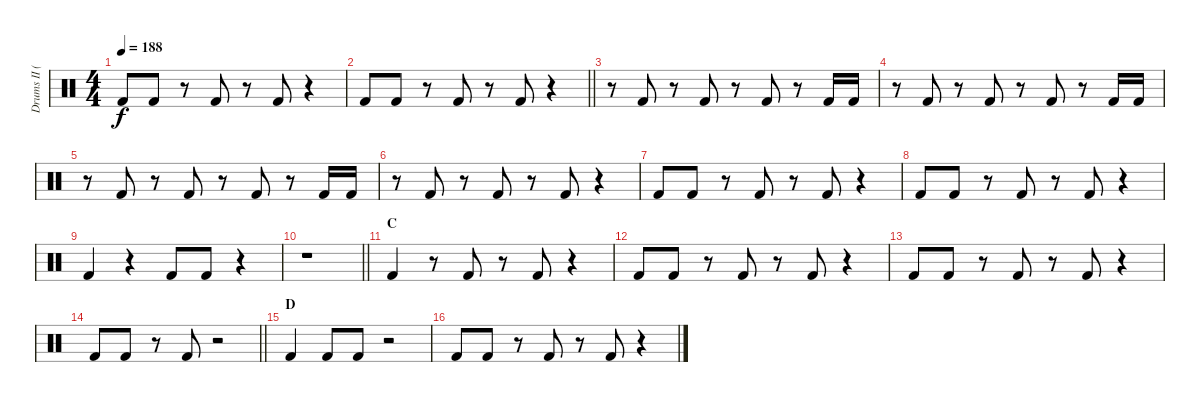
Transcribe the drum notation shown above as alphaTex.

\track ("Drums II (Ruka)" "Drums II (") {instrument percussion}
\staff {score}
\articulation defaults
\ts (4 4)
\tempo 188
\clef neutral
\ks c "Kick (hit) 2".8{dy f} "Kick (hit) 2".8
r.8 "Kick (hit) 2".8 r.8 "Kick (hit) 2".8 r.4 |
\barLineRight lightlight "Kick (hit) 2".8 "Kick (hit) 2".8
r.8 "Kick (hit) 2".8 r.8 "Kick (hit) 2".8 r.4 |
r.8 "Kick (hit) 2".8 r.8 "Kick (hit) 2".8 r.8 "Kick (hit) 2".8 r.8 "Kick (hit) 2".16 "Kick (hit) 2".16 |
r.8 "Kick (hit) 2".8 r.8 "Kick (hit) 2".8 r.8 "Kick (hit) 2".8 r.8 "Kick (hit) 2".16 "Kick (hit) 2".16 |
r.8 "Kick (hit) 2".8 r.8 "Kick (hit) 2".8 r.8 "Kick (hit) 2".8 r.8 "Kick (hit) 2".16 "Kick (hit) 2".16 |
r.8 "Kick (hit) 2".8 r.8 "Kick (hit) 2".8 r.8 "Kick (hit) 2".8 r.4 |
"Kick (hit) 2".8 "Kick (hit) 2".8 r.8 "Kick (hit) 2".8 r.8 "Kick (hit) 2".8 r.4 |
"Kick (hit) 2".8 "Kick (hit) 2".8 r.8 "Kick (hit) 2".8 r.8 "Kick (hit) 2".8 r.4 |
"Kick (hit) 2".4 r.4 "Kick (hit) 2".8 "Kick (hit) 2".8 r.4 |
\barLineRight lightlight
r.1 |
\section ("" "C")
"Kick (hit) 2".4 r.8 "Kick (hit) 2".8 r.8 "Kick (hit) 2".8 r.4 |
"Kick (hit) 2".8 "Kick (hit) 2".8 r.8 "Kick (hit) 2".8 r.8 "Kick (hit) 2".8 r.4 |
"Kick (hit) 2".8 "Kick (hit) 2".8 r.8 "Kick (hit) 2".8 r.8 "Kick (hit) 2".8 r.4 |
\barLineRight lightlight "Kick (hit) 2".8 "Kick (hit) 2".8
r.8 "Kick (hit) 2".8 r.2 |
\section ("" "D")
"Kick (hit) 2".4 "Kick (hit) 2".8 "Kick (hit) 2".8 r.2 |
"Kick (hit) 2".8 "Kick (hit) 2".8 r.8 "Kick (hit) 2".8 r.8 "Kick (hit) 2".8 r.4
